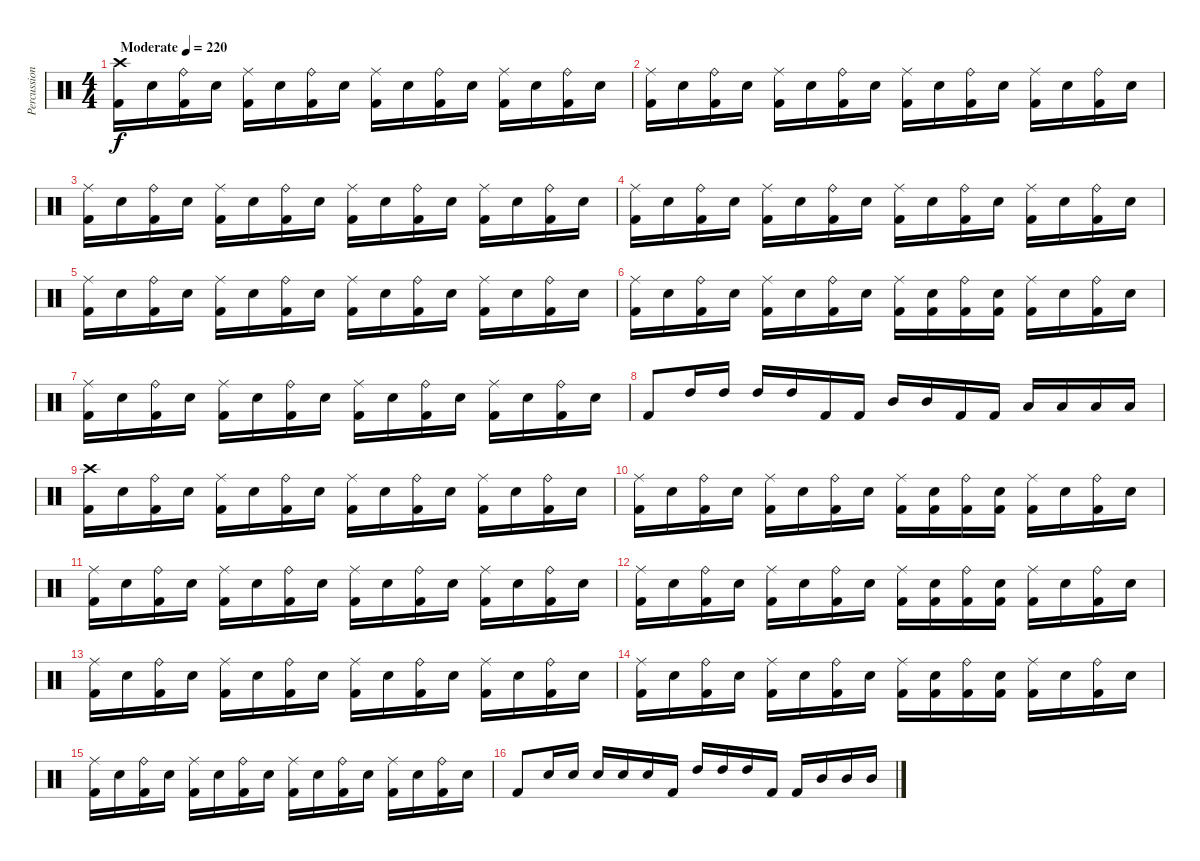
\track ("Percussion (Dan Wilding)" "Percussion") {instrument percussion}
\staff {score}
\articulation defaults
\ts (4 4)
\tempo (220 "Moderate")
\clef neutral
\ks c
("Crash high (hit)" "Kick (hit) 2").16{dy f} "Electric Snare (hit)".16 ("Ride (bell)" "Kick (hit) 2").16 "Electric Snare (hit)".16 ("Ride (middle)" "Kick (hit) 2").16 "Electric Snare (hit)".16 ("Ride (bell)" "Kick (hit) 2").16 "Electric Snare (hit)".16 ("Ride (middle)" "Kick (hit) 2").16 "Electric Snare (hit)".16 ("Ride (bell)" "Kick (hit) 2").16 "Electric Snare (hit)".16 ("Ride (middle)" "Kick (hit) 2").16 "Electric Snare (hit)".16 ("Ride (bell)" "Kick (hit) 2").16 "Electric Snare (hit)".16 |
("Ride (middle)" "Kick (hit) 2").16 "Electric Snare (hit)".16 ("Ride (bell)" "Kick (hit) 2").16 "Electric Snare (hit)".16 ("Ride (middle)" "Kick (hit) 2").16 "Electric Snare (hit)".16 ("Ride (bell)" "Kick (hit) 2").16 "Electric Snare (hit)".16 ("Ride (middle)" "Kick (hit) 2").16 "Electric Snare (hit)".16 ("Ride (bell)" "Kick (hit) 2").16 "Electric Snare (hit)".16 ("Ride (middle)" "Kick (hit) 2").16 "Electric Snare (hit)".16 ("Ride (bell)" "Kick (hit) 2").16 "Electric Snare (hit)".16 |
("Ride (middle)" "Kick (hit) 2").16 "Electric Snare (hit)".16 ("Ride (bell)" "Kick (hit) 2").16 "Electric Snare (hit)".16 ("Ride (middle)" "Kick (hit) 2").16 "Electric Snare (hit)".16 ("Ride (bell)" "Kick (hit) 2").16 "Electric Snare (hit)".16 ("Ride (middle)" "Kick (hit) 2").16 "Electric Snare (hit)".16 ("Ride (bell)" "Kick (hit) 2").16 "Electric Snare (hit)".16 ("Ride (middle)" "Kick (hit) 2").16 "Electric Snare (hit)".16 ("Ride (bell)" "Kick (hit) 2").16 "Electric Snare (hit)".16 |
("Ride (middle)" "Kick (hit) 2").16 "Electric Snare (hit)".16 ("Ride (bell)" "Kick (hit) 2").16 "Electric Snare (hit)".16 ("Ride (middle)" "Kick (hit) 2").16 "Electric Snare (hit)".16 ("Ride (bell)" "Kick (hit) 2").16 "Electric Snare (hit)".16 ("Ride (middle)" "Kick (hit) 2").16 "Electric Snare (hit)".16 ("Ride (bell)" "Kick (hit) 2").16 "Electric Snare (hit)".16 ("Ride (middle)" "Kick (hit) 2").16 "Electric Snare (hit)".16 ("Ride (bell)" "Kick (hit) 2").16 "Electric Snare (hit)".16 |
("Ride (middle)" "Kick (hit) 2").16 "Electric Snare (hit)".16 ("Ride (bell)" "Kick (hit) 2").16 "Electric Snare (hit)".16 ("Ride (middle)" "Kick (hit) 2").16 "Electric Snare (hit)".16 ("Ride (bell)" "Kick (hit) 2").16 "Electric Snare (hit)".16 ("Ride (middle)" "Kick (hit) 2").16 "Electric Snare (hit)".16 ("Ride (bell)" "Kick (hit) 2").16 "Electric Snare (hit)".16 ("Ride (middle)" "Kick (hit) 2").16 "Electric Snare (hit)".16 ("Ride (bell)" "Kick (hit) 2").16 "Electric Snare (hit)".16 |
("Ride (middle)" "Kick (hit) 2").16 "Electric Snare (hit)".16 ("Ride (bell)" "Kick (hit) 2").16 "Electric Snare (hit)".16 ("Ride (middle)" "Kick (hit) 2").16 "Electric Snare (hit)".16 ("Ride (bell)" "Kick (hit) 2").16 "Electric Snare (hit)".16 ("Ride (middle)" "Kick (hit) 2").16 ("Electric Snare (hit)" "Kick (hit) 2").16 ("Ride (bell)" "Kick (hit) 2").16 ("Electric Snare (hit)" "Kick (hit) 2").16 ("Ride (middle)" "Kick (hit) 2").16 "Electric Snare (hit)".16 ("Ride (bell)" "Kick (hit) 2").16 "Electric Snare (hit)".16 |
("Ride (middle)" "Kick (hit) 2").16 "Electric Snare (hit)".16 ("Ride (bell)" "Kick (hit) 2").16 "Electric Snare (hit)".16 ("Ride (middle)" "Kick (hit) 2").16 "Electric Snare (hit)".16 ("Ride (bell)" "Kick (hit) 2").16 "Electric Snare (hit)".16 ("Ride (middle)" "Kick (hit) 2").16 "Electric Snare (hit)".16 ("Ride (bell)" "Kick (hit) 2").16 "Electric Snare (hit)".16 ("Ride (middle)" "Kick (hit) 2").16 "Electric Snare (hit)".16 ("Ride (bell)" "Kick (hit) 2").16 "Electric Snare (hit)".16 |
"Kick (hit) 2".8 "High Tom (hit)".16 "High Tom (hit)".16 "High Tom (hit)".16 "High Tom (hit)".16 "Kick (hit) 2".16 "Kick (hit) 2".16 "Mid Tom (hit)".16 "Mid Tom (hit)".16 "Kick (hit) 2".16 "Kick (hit) 2".16 "Low Tom (hit)".16 "Low Tom (hit)".16 "Low Tom (hit)".16 "Low Tom (hit)".16 |
("Crash high (hit)" "Kick (hit) 2").16 "Electric Snare (hit)".16 ("Ride (bell)" "Kick (hit) 2").16 "Electric Snare (hit)".16 ("Ride (middle)" "Kick (hit) 2").16 "Electric Snare (hit)".16 ("Ride (bell)" "Kick (hit) 2").16 "Electric Snare (hit)".16 ("Ride (middle)" "Kick (hit) 2").16 "Electric Snare (hit)".16 ("Ride (bell)" "Kick (hit) 2").16 "Electric Snare (hit)".16 ("Ride (middle)" "Kick (hit) 2").16 "Electric Snare (hit)".16 ("Ride (bell)" "Kick (hit) 2").16 "Electric Snare (hit)".16 |
("Ride (middle)" "Kick (hit) 2").16 "Electric Snare (hit)".16 ("Ride (bell)" "Kick (hit) 2").16 "Electric Snare (hit)".16 ("Ride (middle)" "Kick (hit) 2").16 "Electric Snare (hit)".16 ("Ride (bell)" "Kick (hit) 2").16 "Electric Snare (hit)".16 ("Ride (middle)" "Kick (hit) 2").16 ("Electric Snare (hit)" "Kick (hit) 2").16 ("Ride (bell)" "Kick (hit) 2").16 ("Electric Snare (hit)" "Kick (hit) 2").16 ("Ride (middle)" "Kick (hit) 2").16 "Electric Snare (hit)".16 ("Ride (bell)" "Kick (hit) 2").16 "Electric Snare (hit)".16 |
("Ride (middle)" "Kick (hit) 2").16 "Electric Snare (hit)".16 ("Ride (bell)" "Kick (hit) 2").16 "Electric Snare (hit)".16 ("Ride (middle)" "Kick (hit) 2").16 "Electric Snare (hit)".16 ("Ride (bell)" "Kick (hit) 2").16 "Electric Snare (hit)".16 ("Ride (middle)" "Kick (hit) 2").16 "Electric Snare (hit)".16 ("Ride (bell)" "Kick (hit) 2").16 "Electric Snare (hit)".16 ("Ride (middle)" "Kick (hit) 2").16 "Electric Snare (hit)".16 ("Ride (bell)" "Kick (hit) 2").16 "Electric Snare (hit)".16 |
("Ride (middle)" "Kick (hit) 2").16 "Electric Snare (hit)".16 ("Ride (bell)" "Kick (hit) 2").16 "Electric Snare (hit)".16 ("Ride (middle)" "Kick (hit) 2").16 "Electric Snare (hit)".16 ("Ride (bell)" "Kick (hit) 2").16 "Electric Snare (hit)".16 ("Ride (middle)" "Kick (hit) 2").16 ("Electric Snare (hit)" "Kick (hit) 2").16 ("Ride (bell)" "Kick (hit) 2").16 ("Electric Snare (hit)" "Kick (hit) 2").16 ("Ride (middle)" "Kick (hit) 2").16 "Electric Snare (hit)".16 ("Ride (bell)" "Kick (hit) 2").16 "Electric Snare (hit)".16 |
("Ride (middle)" "Kick (hit) 2").16 "Electric Snare (hit)".16 ("Ride (bell)" "Kick (hit) 2").16 "Electric Snare (hit)".16 ("Ride (middle)" "Kick (hit) 2").16 "Electric Snare (hit)".16 ("Ride (bell)" "Kick (hit) 2").16 "Electric Snare (hit)".16 ("Ride (middle)" "Kick (hit) 2").16 "Electric Snare (hit)".16 ("Ride (bell)" "Kick (hit) 2").16 "Electric Snare (hit)".16 ("Ride (middle)" "Kick (hit) 2").16 "Electric Snare (hit)".16 ("Ride (bell)" "Kick (hit) 2").16 "Electric Snare (hit)".16 |
("Ride (middle)" "Kick (hit) 2").16 "Electric Snare (hit)".16 ("Ride (bell)" "Kick (hit) 2").16 "Electric Snare (hit)".16 ("Ride (middle)" "Kick (hit) 2").16 "Electric Snare (hit)".16 ("Ride (bell)" "Kick (hit) 2").16 "Electric Snare (hit)".16 ("Ride (middle)" "Kick (hit) 2").16 ("Electric Snare (hit)" "Kick (hit) 2").16 ("Ride (bell)" "Kick (hit) 2").16 ("Electric Snare (hit)" "Kick (hit) 2").16 ("Ride (middle)" "Kick (hit) 2").16 "Electric Snare (hit)".16 ("Ride (bell)" "Kick (hit) 2").16 "Electric Snare (hit)".16 |
("Ride (middle)" "Kick (hit) 2").16 "Electric Snare (hit)".16 ("Ride (bell)" "Kick (hit) 2").16 "Electric Snare (hit)".16 ("Ride (middle)" "Kick (hit) 2").16 "Electric Snare (hit)".16 ("Ride (bell)" "Kick (hit) 2").16 "Electric Snare (hit)".16 ("Ride (middle)" "Kick (hit) 2").16 "Electric Snare (hit)".16 ("Ride (bell)" "Kick (hit) 2").16 "Electric Snare (hit)".16 ("Ride (middle)" "Kick (hit) 2").16 "Electric Snare (hit)".16 ("Ride (bell)" "Kick (hit) 2").16 "Electric Snare (hit)".16 |
"Kick (hit) 2".8 "Electric Snare (hit)".16 "Electric Snare (hit)".16 "Electric Snare (hit)".16 "Electric Snare (hit)".16 "Electric Snare (hit)".16 "Kick (hit) 2".16 "High Tom (hit)".16 "High Tom (hit)".16 "High Tom (hit)".16 "Kick (hit) 2".16 "Kick (hit) 2".16 "Mid Tom (hit)".16 "Mid Tom (hit)".16 "Mid Tom (hit)".16
